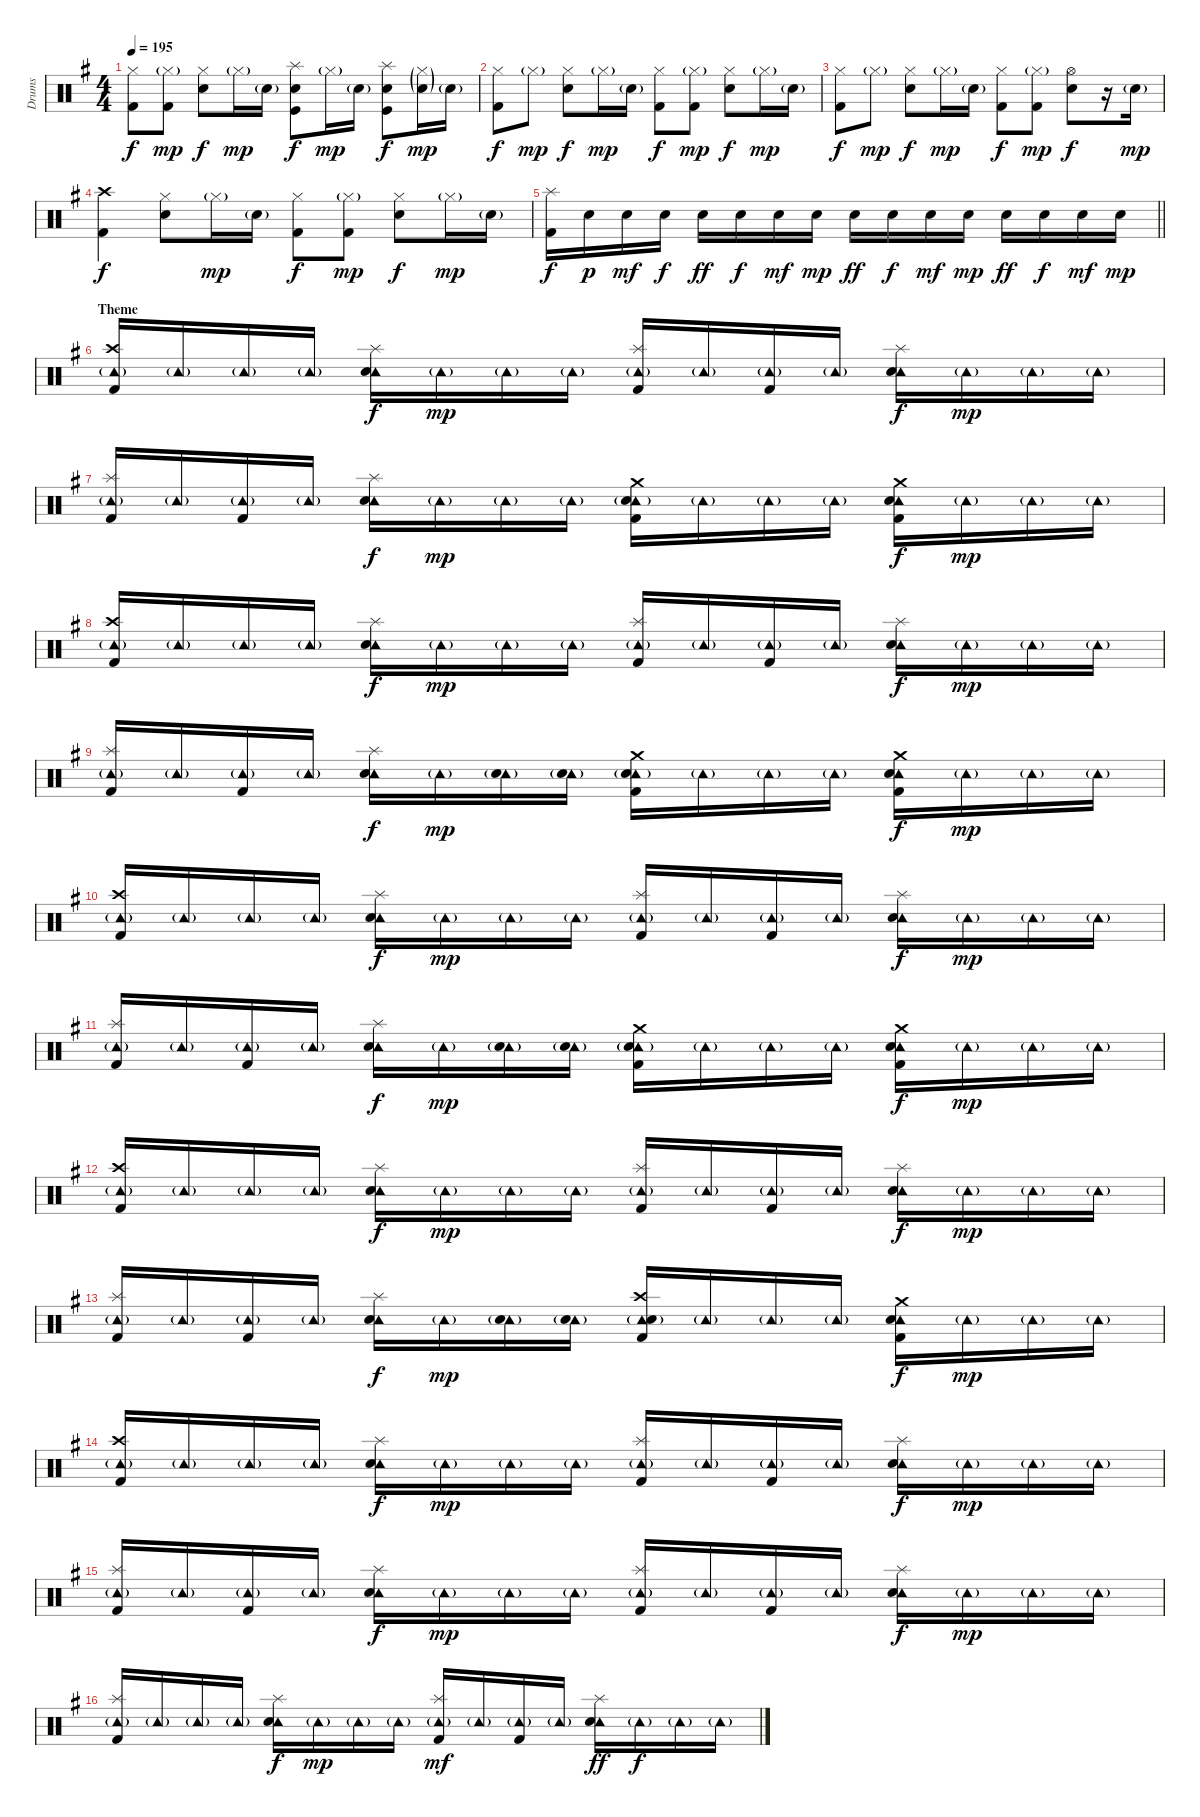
\track ("Drums" "Drums") {instrument percussion}
\staff {score}
\articulation defaults
\ts (4 4)
\tempo 195
\clef neutral
\ks g
("Hi-Hat (closed)" "Kick (hit) 2").8{dy f} ("Hi-Hat (closed)"{g} "Kick (hit) 2").8{dy mp} ("Hi-Hat (closed)" "Electric Snare (hit)").8{dy f} "Hi-Hat (closed)"{g}.16{dy mp} "Electric Snare (hit)"{g}.16 ("Splash (hit)" "Electric Snare (hit)" "Kick (hit)").8{dy f} "Hi-Hat (closed)"{g}.16{dy mp} "Electric Snare (hit)"{g}.16 ("Splash (hit)" "Electric Snare (hit)" "Kick (hit)").8{dy f} ("Hi-Hat (closed)"{g} "Electric Snare (hit)"{g}).16{dy mp} "Electric Snare (hit)"{g}.16 |
("Hi-Hat (closed)" "Kick (hit) 2").8{dy f} "Hi-Hat (closed)"{g}.8{dy mp} ("Hi-Hat (closed)" "Electric Snare (hit)").8{dy f} "Hi-Hat (closed)"{g}.16{dy mp} "Electric Snare (hit)"{g}.16 ("Hi-Hat (closed)" "Kick (hit) 2").8{dy f} ("Hi-Hat (closed)"{g} "Kick (hit) 2").8{dy mp} ("Hi-Hat (closed)" "Electric Snare (hit)").8{dy f} "Hi-Hat (closed)"{g}.16{dy mp} "Electric Snare (hit)"{g}.16 |
("Hi-Hat (closed)" "Kick (hit) 2").8{dy f} "Hi-Hat (closed)"{g}.8{dy mp} ("Hi-Hat (closed)" "Electric Snare (hit)").8{dy f} "Hi-Hat (closed)"{g}.16{dy mp} "Electric Snare (hit)"{g}.16 ("Hi-Hat (closed)" "Kick (hit) 2").8{dy f} ("Hi-Hat (closed)"{g} "Kick (hit) 2").8{dy mp} ("Hi-Hat (open)" "Electric Snare (hit)").8{dy f} r.16 "Electric Snare (hit)"{g}.16{dy mp} |
("Crash high (hit)" "Kick (hit) 2").4{dy f} ("Hi-Hat (closed)" "Electric Snare (hit)").8 "Hi-Hat (closed)"{g}.16{dy mp} "Electric Snare (hit)"{g}.16 ("Hi-Hat (closed)" "Kick (hit) 2").8{dy f} ("Hi-Hat (closed)"{g} "Kick (hit) 2").8{dy mp} ("Hi-Hat (closed)" "Electric Snare (hit)").8{dy f} "Hi-Hat (closed)"{g}.16{dy mp} "Electric Snare (hit)"{g}.16 |
\barLineRight lightlight
("Splash (hit)" "Kick (hit) 2").16{dy f} "Electric Snare (hit)".16{dy p} "Electric Snare (hit)".16{dy mf} "Electric Snare (hit)".16{dy f} "Electric Snare (hit)".16{dy ff} "Electric Snare (hit)".16{dy f} "Electric Snare (hit)".16{dy mf} "Electric Snare (hit)".16{dy mp} "Electric Snare (hit)".16{dy ff} "Electric Snare (hit)".16{dy f} "Electric Snare (hit)".16{dy mf} "Electric Snare (hit)".16{dy mp} "Electric Snare (hit)".16{dy ff} "Electric Snare (hit)".16{dy f} "Electric Snare (hit)".16{dy mf} "Electric Snare (hit)".16{dy mp} |
\section ("" "Theme")
("Crash high (hit)" "Tambourine (hit)"{g} "Kick (hit) 2").16 "Tambourine (hit)"{g}.16 "Tambourine (hit)"{g}.16 "Tambourine (hit)"{g}.16 ("Splash (hit)" "Tambourine (hit)" "Electric Snare (hit)").16{dy f} "Tambourine (hit)"{g}.16{dy mp} "Tambourine (hit)"{g}.16 "Tambourine (hit)"{g}.16 ("Splash (hit)" "Tambourine (hit)"{g} "Kick (hit) 2").16 "Tambourine (hit)"{g}.16 ("Tambourine (hit)"{g} "Kick (hit) 2").16 "Tambourine (hit)"{g}.16 ("Splash (hit)" "Tambourine (hit)" "Electric Snare (hit)").16{dy f} "Tambourine (hit)"{g}.16{dy mp} "Tambourine (hit)"{g}.16 "Tambourine (hit)"{g}.16 |
("Splash (hit)" "Tambourine (hit)"{g} "Kick (hit) 2").16 "Tambourine (hit)"{g}.16 ("Tambourine (hit)"{g} "Kick (hit) 2").16 "Tambourine (hit)"{g}.16 ("Splash (hit)" "Tambourine (hit)" "Electric Snare (hit)").16{dy f} "Tambourine (hit)"{g}.16{dy mp} "Tambourine (hit)"{g}.16 "Tambourine (hit)"{g}.16 ("Crash medium (hit)" "Tambourine (hit)"{g} "Electric Snare (hit)" "Kick (hit) 2").16 "Tambourine (hit)"{g}.16 "Tambourine (hit)"{g}.16 "Tambourine (hit)"{g}.16 ("Crash medium (hit)" "Tambourine (hit)" "Electric Snare (hit)" "Kick (hit) 2").16{dy f} "Tambourine (hit)"{g}.16{dy mp} "Tambourine (hit)"{g}.16 "Tambourine (hit)"{g}.16 |
("Crash high (hit)" "Tambourine (hit)"{g} "Kick (hit) 2").16 "Tambourine (hit)"{g}.16 "Tambourine (hit)"{g}.16 "Tambourine (hit)"{g}.16 ("Splash (hit)" "Tambourine (hit)" "Electric Snare (hit)").16{dy f} "Tambourine (hit)"{g}.16{dy mp} "Tambourine (hit)"{g}.16 "Tambourine (hit)"{g}.16 ("Splash (hit)" "Tambourine (hit)"{g} "Kick (hit) 2").16 "Tambourine (hit)"{g}.16 ("Tambourine (hit)"{g} "Kick (hit) 2").16 "Tambourine (hit)"{g}.16 ("Splash (hit)" "Tambourine (hit)" "Electric Snare (hit)").16{dy f} "Tambourine (hit)"{g}.16{dy mp} "Tambourine (hit)"{g}.16 "Tambourine (hit)"{g}.16 |
("Splash (hit)" "Tambourine (hit)"{g} "Kick (hit) 2").16 "Tambourine (hit)"{g}.16 ("Tambourine (hit)"{g} "Kick (hit) 2").16 "Tambourine (hit)"{g}.16 ("Splash (hit)" "Tambourine (hit)" "Electric Snare (hit)").16{dy f} "Tambourine (hit)"{g}.16{dy mp} ("Tambourine (hit)"{g} "Electric Snare (hit)").16 ("Tambourine (hit)"{g} "Electric Snare (hit)").16 ("Crash medium (hit)" "Tambourine (hit)"{g} "Electric Snare (hit)" "Kick (hit) 2").16 "Tambourine (hit)"{g}.16 "Tambourine (hit)"{g}.16 "Tambourine (hit)"{g}.16 ("Crash medium (hit)" "Tambourine (hit)" "Electric Snare (hit)" "Kick (hit) 2").16{dy f} "Tambourine (hit)"{g}.16{dy mp} "Tambourine (hit)"{g}.16 "Tambourine (hit)"{g}.16 |
("Crash high (hit)" "Tambourine (hit)"{g} "Kick (hit) 2").16 "Tambourine (hit)"{g}.16 "Tambourine (hit)"{g}.16 "Tambourine (hit)"{g}.16 ("Splash (hit)" "Tambourine (hit)" "Electric Snare (hit)").16{dy f} "Tambourine (hit)"{g}.16{dy mp} "Tambourine (hit)"{g}.16 "Tambourine (hit)"{g}.16 ("Splash (hit)" "Tambourine (hit)"{g} "Kick (hit) 2").16 "Tambourine (hit)"{g}.16 ("Tambourine (hit)"{g} "Kick (hit) 2").16 "Tambourine (hit)"{g}.16 ("Splash (hit)" "Tambourine (hit)" "Electric Snare (hit)").16{dy f} "Tambourine (hit)"{g}.16{dy mp} "Tambourine (hit)"{g}.16 "Tambourine (hit)"{g}.16 |
("Splash (hit)" "Tambourine (hit)"{g} "Kick (hit) 2").16 "Tambourine (hit)"{g}.16 ("Tambourine (hit)"{g} "Kick (hit) 2").16 "Tambourine (hit)"{g}.16 ("Splash (hit)" "Tambourine (hit)" "Electric Snare (hit)").16{dy f} "Tambourine (hit)"{g}.16{dy mp} ("Tambourine (hit)"{g} "Electric Snare (hit)").16 ("Tambourine (hit)"{g} "Electric Snare (hit)").16 ("Crash medium (hit)" "Tambourine (hit)"{g} "Electric Snare (hit)" "Kick (hit) 2").16 "Tambourine (hit)"{g}.16 "Tambourine (hit)"{g}.16 "Tambourine (hit)"{g}.16 ("Crash medium (hit)" "Tambourine (hit)" "Electric Snare (hit)" "Kick (hit) 2").16{dy f} "Tambourine (hit)"{g}.16{dy mp} "Tambourine (hit)"{g}.16 "Tambourine (hit)"{g}.16 |
("Crash high (hit)" "Tambourine (hit)"{g} "Kick (hit) 2").16 "Tambourine (hit)"{g}.16 "Tambourine (hit)"{g}.16 "Tambourine (hit)"{g}.16 ("Splash (hit)" "Tambourine (hit)" "Electric Snare (hit)").16{dy f} "Tambourine (hit)"{g}.16{dy mp} "Tambourine (hit)"{g}.16 "Tambourine (hit)"{g}.16 ("Splash (hit)" "Tambourine (hit)"{g} "Kick (hit) 2").16 "Tambourine (hit)"{g}.16 ("Tambourine (hit)"{g} "Kick (hit) 2").16 "Tambourine (hit)"{g}.16 ("Splash (hit)" "Tambourine (hit)" "Electric Snare (hit)").16{dy f} "Tambourine (hit)"{g}.16{dy mp} "Tambourine (hit)"{g}.16 "Tambourine (hit)"{g}.16 |
("Splash (hit)" "Tambourine (hit)"{g} "Kick (hit) 2").16 "Tambourine (hit)"{g}.16 ("Tambourine (hit)"{g} "Kick (hit) 2").16 "Tambourine (hit)"{g}.16 ("Splash (hit)" "Tambourine (hit)" "Electric Snare (hit)").16{dy f} "Tambourine (hit)"{g}.16{dy mp} ("Tambourine (hit)"{g} "Electric Snare (hit)").16 ("Tambourine (hit)"{g} "Electric Snare (hit)").16 ("Crash high (hit)" "Tambourine (hit)"{g} "Electric Snare (hit)" "Kick (hit) 2").16 "Tambourine (hit)"{g}.16 "Tambourine (hit)"{g}.16 "Tambourine (hit)"{g}.16 ("Crash medium (hit)" "Tambourine (hit)" "Electric Snare (hit)" "Kick (hit) 2").16{dy f} "Tambourine (hit)"{g}.16{dy mp} "Tambourine (hit)"{g}.16 "Tambourine (hit)"{g}.16 |
("Crash high (hit)" "Tambourine (hit)"{g} "Kick (hit) 2").16 "Tambourine (hit)"{g}.16 "Tambourine (hit)"{g}.16 "Tambourine (hit)"{g}.16 ("Splash (hit)" "Tambourine (hit)" "Electric Snare (hit)").16{dy f} "Tambourine (hit)"{g}.16{dy mp} "Tambourine (hit)"{g}.16 "Tambourine (hit)"{g}.16 ("Splash (hit)" "Tambourine (hit)"{g} "Kick (hit) 2").16 "Tambourine (hit)"{g}.16 ("Tambourine (hit)"{g} "Kick (hit) 2").16 "Tambourine (hit)"{g}.16 ("Splash (hit)" "Tambourine (hit)" "Electric Snare (hit)").16{dy f} "Tambourine (hit)"{g}.16{dy mp} "Tambourine (hit)"{g}.16 "Tambourine (hit)"{g}.16 |
("Splash (hit)" "Tambourine (hit)"{g} "Kick (hit) 2").16 "Tambourine (hit)"{g}.16 ("Tambourine (hit)"{g} "Kick (hit) 2").16 "Tambourine (hit)"{g}.16 ("Splash (hit)" "Tambourine (hit)" "Electric Snare (hit)").16{dy f} "Tambourine (hit)"{g}.16{dy mp} "Tambourine (hit)"{g}.16 "Tambourine (hit)"{g}.16 ("Splash (hit)" "Tambourine (hit)"{g} "Kick (hit) 2").16 "Tambourine (hit)"{g}.16 ("Tambourine (hit)"{g} "Kick (hit) 2").16 "Tambourine (hit)"{g}.16 ("Splash (hit)" "Tambourine (hit)" "Electric Snare (hit)").16{dy f} "Tambourine (hit)"{g}.16{dy mp} "Tambourine (hit)"{g}.16 "Tambourine (hit)"{g}.16 |
("Splash (hit)" "Tambourine (hit)"{g} "Kick (hit) 2").16 "Tambourine (hit)"{g}.16 "Tambourine (hit)"{g}.16 "Tambourine (hit)"{g}.16 ("Splash (hit)" "Tambourine (hit)" "Electric Snare (hit)").16{dy f} "Tambourine (hit)"{g}.16{dy mp} "Tambourine (hit)"{g}.16 "Tambourine (hit)"{g}.16 ("Splash (hit)" "Tambourine (hit)"{g} "Kick (hit) 2").16{dy mf} "Tambourine (hit)"{g}.16 ("Tambourine (hit)"{g} "Kick (hit) 2").16 "Tambourine (hit)"{g}.16 ("Splash (hit)" "Tambourine (hit)" "Electric Snare (hit)").16{dy ff} "Tambourine (hit)"{g}.16{dy f} "Tambourine (hit)"{g}.16 "Tambourine (hit)"{g}.16
